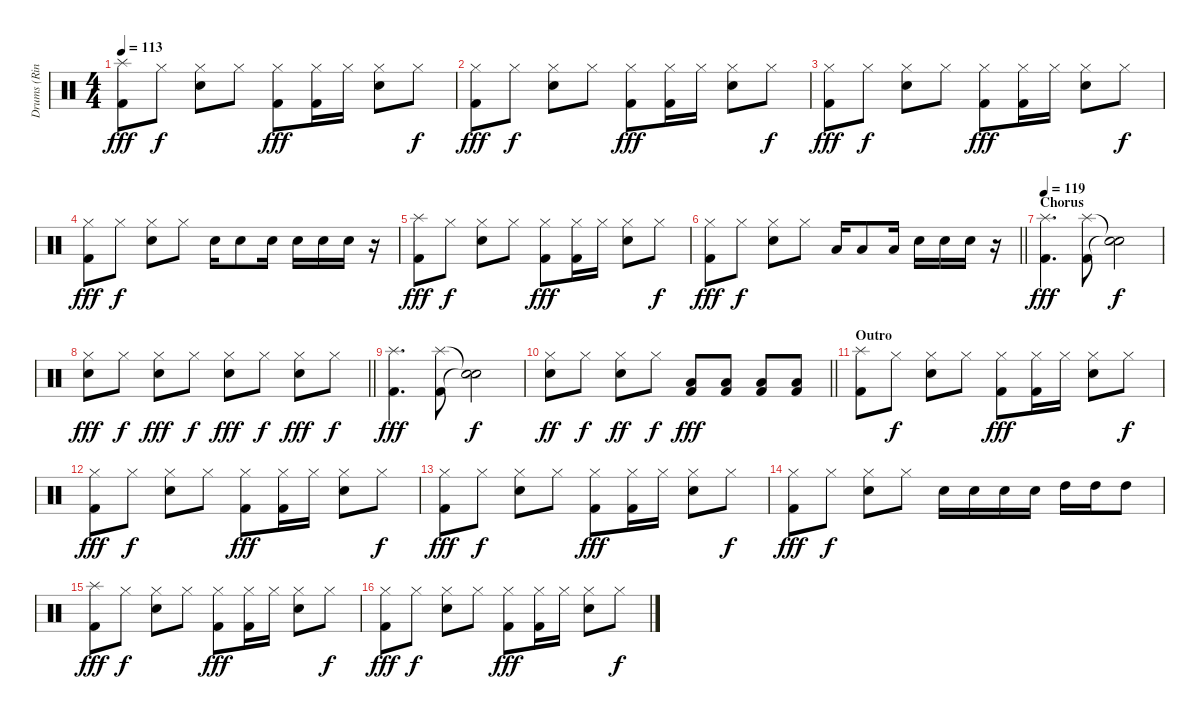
\track ("Drums (Ringo Starr)" "Drums (Rin") {instrument percussion}
\staff {score}
\articulation defaults
\ts (4 4)
\tempo 113
\clef neutral
\ks c
("Splash (hit)" "Kick (hit) 2").8{dy fff} "Hi-Hat (closed)".8{dy f} ("Hi-Hat (closed)" "Snare (hit) 2").8 "Hi-Hat (closed)".8 ("Hi-Hat (closed)" "Kick (hit) 2").8{dy fff} ("Hi-Hat (closed)" "Kick (hit) 2").16 "Hi-Hat (closed)".16 ("Hi-Hat (closed)" "Snare (hit) 2").8 "Hi-Hat (closed)".8{dy f} |
("Hi-Hat (closed)" "Kick (hit) 2").8{dy fff} "Hi-Hat (closed)".8{dy f} ("Hi-Hat (closed)" "Snare (hit) 2").8 "Hi-Hat (closed)".8 ("Hi-Hat (closed)" "Kick (hit) 2").8{dy fff} ("Hi-Hat (closed)" "Kick (hit) 2").16 "Hi-Hat (closed)".16 ("Hi-Hat (closed)" "Snare (hit) 2").8 "Hi-Hat (closed)".8{dy f} |
("Hi-Hat (closed)" "Kick (hit) 2").8{dy fff} "Hi-Hat (closed)".8{dy f} ("Hi-Hat (closed)" "Snare (hit) 2").8 "Hi-Hat (closed)".8 ("Hi-Hat (closed)" "Kick (hit) 2").8{dy fff} ("Hi-Hat (closed)" "Kick (hit) 2").16 "Hi-Hat (closed)".16 ("Hi-Hat (closed)" "Snare (hit) 2").8 "Hi-Hat (closed)".8{dy f} |
("Hi-Hat (closed)" "Kick (hit) 2").8{dy fff} "Hi-Hat (closed)".8{dy f} ("Hi-Hat (closed)" "Snare (hit) 2").8 "Hi-Hat (closed)".8 "Snare (hit) 2".16 "Snare (hit) 2".8 "Snare (hit) 2".16 "Snare (hit) 2".16 "Snare (hit) 2".16 "Snare (hit) 2".16 r.16 |
("Splash (hit)" "Kick (hit) 2").8{dy fff} "Hi-Hat (closed)".8{dy f} ("Hi-Hat (closed)" "Snare (hit) 2").8 "Hi-Hat (closed)".8 ("Hi-Hat (closed)" "Kick (hit) 2").8{dy fff} ("Hi-Hat (closed)" "Kick (hit) 2").16 "Hi-Hat (closed)".16 ("Hi-Hat (closed)" "Snare (hit) 2").8 "Hi-Hat (closed)".8{dy f} |
\barLineRight lightlight
("Hi-Hat (closed)" "Kick (hit) 2").8{dy fff} "Hi-Hat (closed)".8{dy f} ("Hi-Hat (closed)" "Snare (hit) 2").8 "Hi-Hat (closed)".8 "Low Floor Tom (hit)".16 "Low Floor Tom (hit)".8 "Low Floor Tom (hit)".16 "Snare (hit) 2".16 "Snare (hit) 2".16 "Snare (hit) 2".16 r.16 |
\section ("" "Chorus")
\tempo 119
("Splash (hit)" "Kick (hit) 2").4{d dy fff} ("Splash (hit)" "Kick (hit) 2").8 ("Snare (hit)"{t} "Snare (hit)"{t}).2{dy f} |
\barLineRight lightlight
("Hi-Hat (closed)" "Snare (hit) 2").8{dy fff} "Hi-Hat (closed)".8{dy f} ("Hi-Hat (closed)" "Snare (hit) 2").8{dy fff} "Hi-Hat (closed)".8{dy f} ("Hi-Hat (closed)" "Snare (hit) 2").8{dy fff} "Hi-Hat (closed)".8{dy f} ("Hi-Hat (closed)" "Snare (hit) 2").8{dy fff} "Hi-Hat (closed)".8{dy f} |
("Splash (hit)" "Kick (hit) 2").4{d dy fff} ("Splash (hit)" "Kick (hit) 2").8 ("Snare (hit)"{t} "Snare (hit)"{t}).2{dy f} |
\barLineRight lightlight
("Hi-Hat (closed)" "Snare (hit) 2").8{dy ff} "Hi-Hat (closed)".8{dy f} ("Hi-Hat (closed)" "Snare (hit) 2").8{dy ff} "Hi-Hat (closed)".8{dy f} ("Low Floor Tom (hit)" "Kick (hit) 2").8{dy fff} ("Low Floor Tom (hit)" "Kick (hit) 2").8 ("Low Floor Tom (hit)" "Kick (hit) 2").8 ("Low Floor Tom (hit)" "Kick (hit) 2").8 |
\section ("" "Outro")
("Splash (hit)" "Kick (hit) 2").8 "Hi-Hat (closed)".8{dy f} ("Hi-Hat (closed)" "Snare (hit) 2").8 "Hi-Hat (closed)".8 ("Hi-Hat (closed)" "Kick (hit) 2").8{dy fff} ("Hi-Hat (closed)" "Kick (hit) 2").16 "Hi-Hat (closed)".16 ("Hi-Hat (closed)" "Snare (hit) 2").8 "Hi-Hat (closed)".8{dy f} |
("Hi-Hat (closed)" "Kick (hit) 2").8{dy fff} "Hi-Hat (closed)".8{dy f} ("Hi-Hat (closed)" "Snare (hit) 2").8 "Hi-Hat (closed)".8 ("Hi-Hat (closed)" "Kick (hit) 2").8{dy fff} ("Hi-Hat (closed)" "Kick (hit) 2").16 "Hi-Hat (closed)".16 ("Hi-Hat (closed)" "Snare (hit) 2").8 "Hi-Hat (closed)".8{dy f} |
("Hi-Hat (closed)" "Kick (hit) 2").8{dy fff} "Hi-Hat (closed)".8{dy f} ("Hi-Hat (closed)" "Snare (hit) 2").8 "Hi-Hat (closed)".8 ("Hi-Hat (closed)" "Kick (hit) 2").8{dy fff} ("Hi-Hat (closed)" "Kick (hit) 2").16 "Hi-Hat (closed)".16 ("Hi-Hat (closed)" "Snare (hit) 2").8 "Hi-Hat (closed)".8{dy f} |
("Hi-Hat (closed)" "Kick (hit) 2").8{dy fff} "Hi-Hat (closed)".8{dy f} ("Hi-Hat (closed)" "Snare (hit) 2").8 "Hi-Hat (closed)".8 "Snare (hit) 2".16 "Snare (hit) 2".16 "Snare (hit) 2".16 "Snare (hit) 2".16 "High Tom (hit)".16 "High Tom (hit)".16 "High Tom (hit)".8 |
("Splash (hit)" "Kick (hit) 2").8{dy fff} "Hi-Hat (closed)".8{dy f} ("Hi-Hat (closed)" "Snare (hit) 2").8 "Hi-Hat (closed)".8 ("Hi-Hat (closed)" "Kick (hit) 2").8{dy fff} ("Hi-Hat (closed)" "Kick (hit) 2").16 "Hi-Hat (closed)".16 ("Hi-Hat (closed)" "Snare (hit) 2").8 "Hi-Hat (closed)".8{dy f} |
("Hi-Hat (closed)" "Kick (hit) 2").8{dy fff} "Hi-Hat (closed)".8{dy f} ("Hi-Hat (closed)" "Snare (hit) 2").8 "Hi-Hat (closed)".8 ("Hi-Hat (closed)" "Kick (hit) 2").8{dy fff} ("Hi-Hat (closed)" "Kick (hit) 2").16 "Hi-Hat (closed)".16 ("Hi-Hat (closed)" "Snare (hit) 2").8 "Hi-Hat (closed)".8{dy f}
